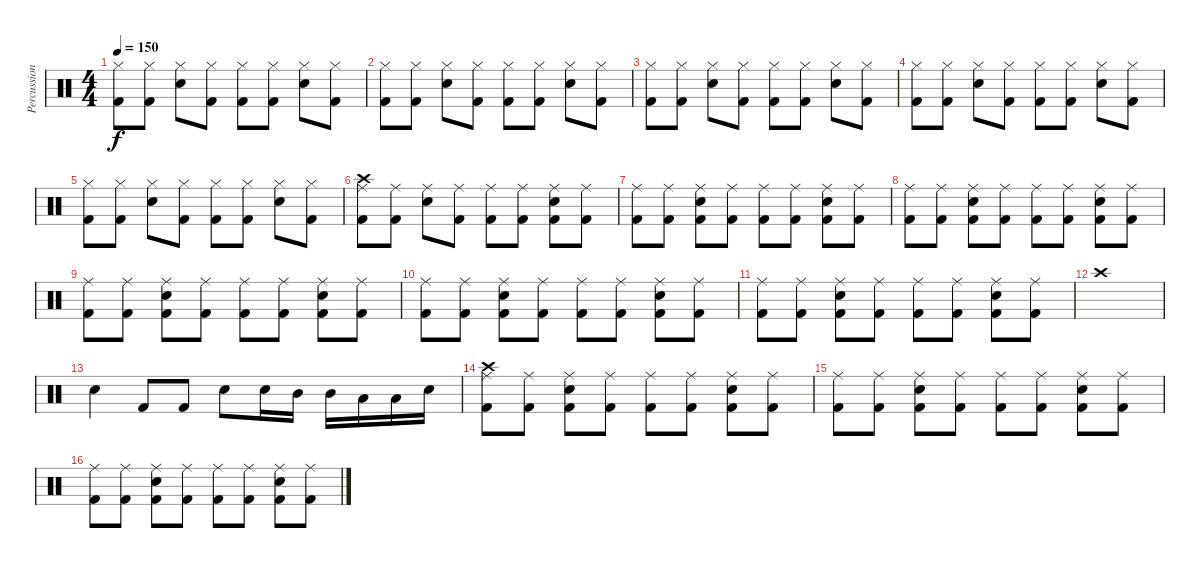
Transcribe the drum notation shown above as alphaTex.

\track ("Percussion" "Percussion") {instrument percussion}
\staff {score}
\articulation defaults
\ts (4 4)
\tempo 150
\clef neutral
\ks c
("Hi-Hat (closed)" "Kick (hit) 2").8{dy f} ("Hi-Hat (closed)" "Kick (hit) 2").8 ("Hi-Hat (closed)" "Snare (hit) 2").8 ("Hi-Hat (closed)" "Kick (hit) 2").8 ("Hi-Hat (closed)" "Kick (hit) 2").8 ("Hi-Hat (closed)" "Kick (hit) 2").8 ("Hi-Hat (closed)" "Snare (hit) 2").8 ("Hi-Hat (closed)" "Kick (hit) 2").8 |
("Hi-Hat (closed)" "Kick (hit) 2").8 ("Hi-Hat (closed)" "Kick (hit) 2").8 ("Hi-Hat (closed)" "Snare (hit) 2").8 ("Hi-Hat (closed)" "Kick (hit) 2").8 ("Hi-Hat (closed)" "Kick (hit) 2").8 ("Hi-Hat (closed)" "Kick (hit) 2").8 ("Hi-Hat (closed)" "Snare (hit) 2").8 ("Hi-Hat (closed)" "Kick (hit) 2").8 |
("Hi-Hat (closed)" "Kick (hit) 2").8 ("Hi-Hat (closed)" "Kick (hit) 2").8 ("Hi-Hat (closed)" "Snare (hit) 2").8 ("Hi-Hat (closed)" "Kick (hit) 2").8 ("Hi-Hat (closed)" "Kick (hit) 2").8 ("Hi-Hat (closed)" "Kick (hit) 2").8 ("Hi-Hat (closed)" "Snare (hit) 2").8 ("Hi-Hat (closed)" "Kick (hit) 2").8 |
("Hi-Hat (closed)" "Kick (hit) 2").8 ("Hi-Hat (closed)" "Kick (hit) 2").8 ("Hi-Hat (closed)" "Snare (hit) 2").8 ("Hi-Hat (closed)" "Kick (hit) 2").8 ("Hi-Hat (closed)" "Kick (hit) 2").8 ("Hi-Hat (closed)" "Kick (hit) 2").8 ("Hi-Hat (closed)" "Snare (hit) 2").8 ("Hi-Hat (closed)" "Kick (hit) 2").8 |
("Hi-Hat (closed)" "Kick (hit) 2").8 ("Hi-Hat (closed)" "Kick (hit) 2").8 ("Hi-Hat (closed)" "Snare (hit) 2").8 ("Hi-Hat (closed)" "Kick (hit) 2").8 ("Hi-Hat (closed)" "Kick (hit) 2").8 ("Hi-Hat (closed)" "Kick (hit) 2").8 ("Hi-Hat (closed)" "Snare (hit) 2").8 ("Hi-Hat (closed)" "Kick (hit) 2").8 |
("Crash high (hit)" "Ride (middle)" "Kick (hit) 2").8 ("Ride (middle)" "Kick (hit) 2").8 ("Ride (middle)" "Snare (hit) 2").8 ("Ride (middle)" "Kick (hit) 2").8 ("Ride (middle)" "Kick (hit) 2").8 ("Ride (middle)" "Kick (hit) 2").8 ("Ride (middle)" "Snare (hit) 2" "Kick (hit) 2").8 ("Ride (middle)" "Kick (hit) 2").8 |
("Ride (middle)" "Kick (hit) 2").8 ("Ride (middle)" "Kick (hit) 2").8 ("Ride (middle)" "Snare (hit) 2" "Kick (hit) 2").8 ("Ride (middle)" "Kick (hit) 2").8 ("Ride (middle)" "Kick (hit) 2").8 ("Ride (middle)" "Kick (hit) 2").8 ("Ride (middle)" "Snare (hit) 2" "Kick (hit) 2").8 ("Ride (middle)" "Kick (hit) 2").8 |
("Ride (middle)" "Kick (hit) 2").8 ("Ride (middle)" "Kick (hit) 2").8 ("Ride (middle)" "Snare (hit) 2" "Kick (hit) 2").8 ("Ride (middle)" "Kick (hit) 2").8 ("Ride (middle)" "Kick (hit) 2").8 ("Ride (middle)" "Kick (hit) 2").8 ("Ride (middle)" "Snare (hit) 2" "Kick (hit) 2").8 ("Ride (middle)" "Kick (hit) 2").8 |
("Ride (middle)" "Kick (hit) 2").8 ("Ride (middle)" "Kick (hit) 2").8 ("Ride (middle)" "Snare (hit) 2" "Kick (hit) 2").8 ("Ride (middle)" "Kick (hit) 2").8 ("Ride (middle)" "Kick (hit) 2").8 ("Ride (middle)" "Kick (hit) 2").8 ("Ride (middle)" "Snare (hit) 2" "Kick (hit) 2").8 ("Ride (middle)" "Kick (hit) 2").8 |
("Ride (middle)" "Kick (hit) 2").8 ("Ride (middle)" "Kick (hit) 2").8 ("Ride (middle)" "Snare (hit) 2" "Kick (hit) 2").8 ("Ride (middle)" "Kick (hit) 2").8 ("Ride (middle)" "Kick (hit) 2").8 ("Ride (middle)" "Kick (hit) 2").8 ("Ride (middle)" "Snare (hit) 2" "Kick (hit) 2").8 ("Ride (middle)" "Kick (hit) 2").8 |
("Ride (middle)" "Kick (hit) 2").8 ("Ride (middle)" "Kick (hit) 2").8 ("Ride (middle)" "Snare (hit) 2" "Kick (hit) 2").8 ("Ride (middle)" "Kick (hit) 2").8 ("Ride (middle)" "Kick (hit) 2").8 ("Ride (middle)" "Kick (hit) 2").8 ("Ride (middle)" "Snare (hit) 2" "Kick (hit) 2").8 ("Ride (middle)" "Kick (hit) 2").8 |
"Crash high (hit)".1 |
"Snare (hit) 2".4 "Kick (hit) 2".8 "Kick (hit) 2".8 "Snare (hit) 2".8 "Snare (hit) 2".16 "Mid Tom (hit)".16 "Mid Tom (hit)".16 "Low Tom (hit)".16 "Low Tom (hit)".16 "Snare (hit) 2".16 |
("Crash high (hit)" "Ride (middle)" "Kick (hit) 2").8 ("Ride (middle)" "Kick (hit) 2").8 ("Ride (middle)" "Snare (hit) 2" "Kick (hit) 2").8 ("Ride (middle)" "Kick (hit) 2").8 ("Ride (middle)" "Kick (hit) 2").8 ("Ride (middle)" "Kick (hit) 2").8 ("Ride (middle)" "Snare (hit) 2" "Kick (hit) 2").8 ("Ride (middle)" "Kick (hit) 2").8 |
("Ride (middle)" "Kick (hit) 2").8 ("Ride (middle)" "Kick (hit) 2").8 ("Ride (middle)" "Snare (hit) 2" "Kick (hit) 2").8 ("Ride (middle)" "Kick (hit) 2").8 ("Ride (middle)" "Kick (hit) 2").8 ("Ride (middle)" "Kick (hit) 2").8 ("Ride (middle)" "Snare (hit) 2" "Kick (hit) 2").8 ("Ride (middle)" "Kick (hit) 2").8 |
("Ride (middle)" "Kick (hit) 2").8 ("Ride (middle)" "Kick (hit) 2").8 ("Ride (middle)" "Snare (hit) 2" "Kick (hit) 2").8 ("Ride (middle)" "Kick (hit) 2").8 ("Ride (middle)" "Kick (hit) 2").8 ("Ride (middle)" "Kick (hit) 2").8 ("Ride (middle)" "Snare (hit) 2" "Kick (hit) 2").8 ("Ride (middle)" "Kick (hit) 2").8
